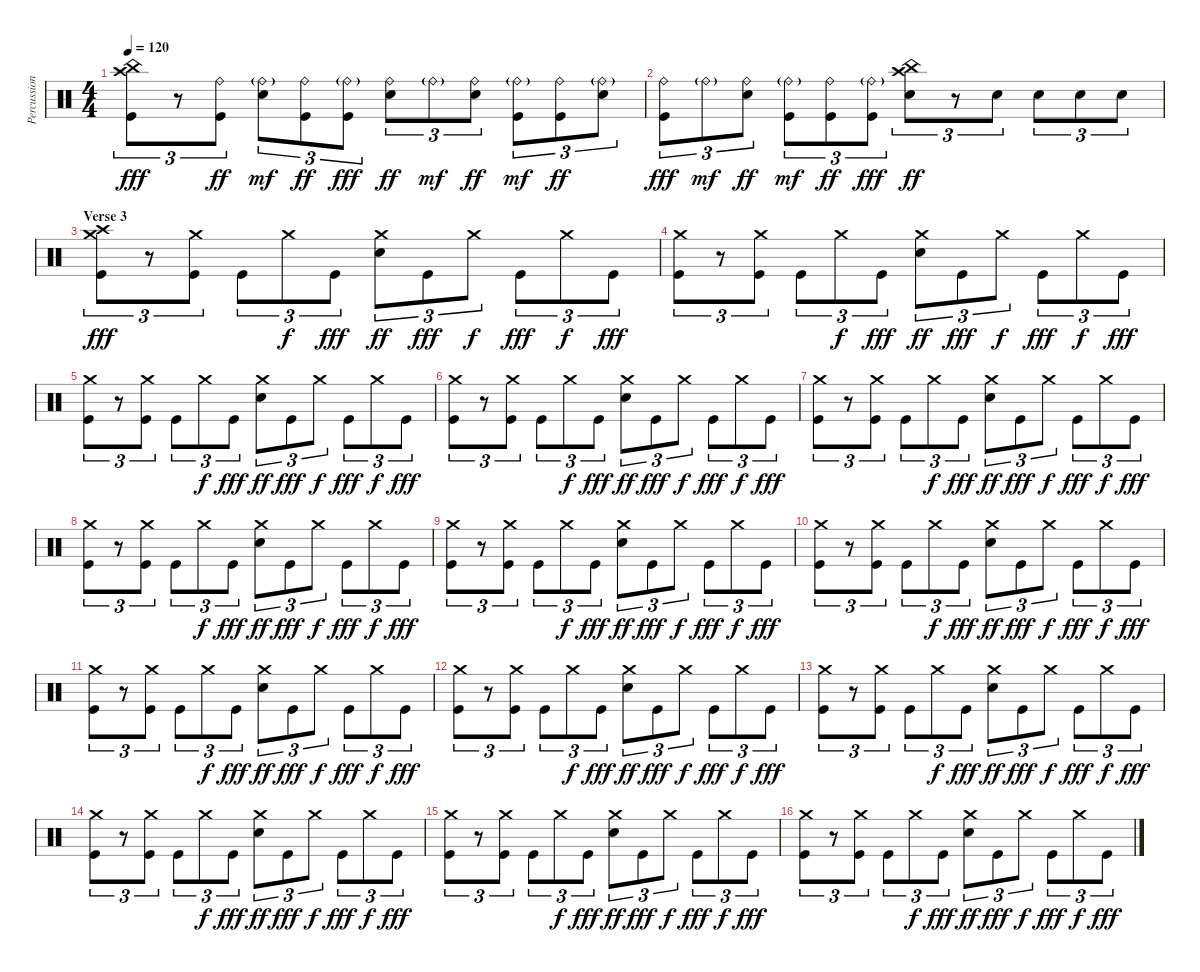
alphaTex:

\track ("Percussion" "Percussion") {instrument percussion}
\staff {score}
\articulation defaults
\ts (4 4)
\tempo 120
\clef neutral
\ks c
("China (hit)" "Crash high (hit)" "Kick (hit)").8{tu (3 2) dy fff volume 16} r.8{tu (3 2)} ("Ride (bell)" "Kick (hit)").8{tu (3 2) dy ff} ("Ride (bell)"{g} "Snare (hit) 2").8{tu (3 2) dy mf} ("Ride (bell)" "Kick (hit)").8{tu (3 2) dy ff} ("Ride (bell)"{g} "Kick (hit)").8{tu (3 2) dy fff} ("Ride (bell)" "Snare (hit) 2").8{tu (3 2) dy ff} "Ride (bell)"{g}.8{tu (3 2) dy mf} ("Ride (bell)" "Snare (hit) 2").8{tu (3 2) dy ff} ("Ride (bell)"{g} "Kick (hit)").8{tu (3 2) dy mf} ("Ride (bell)" "Kick (hit)").8{tu (3 2) dy ff} ("Ride (bell)"{g} "Snare (hit) 2").8{tu (3 2)} |
("Ride (bell)" "Kick (hit)").8{tu (3 2) dy fff} "Ride (bell)"{g}.8{tu (3 2) dy mf} ("Ride (bell)" "Snare (hit) 2").8{tu (3 2) dy ff} ("Ride (bell)"{g} "Kick (hit)").8{tu (3 2) dy mf} ("Ride (bell)" "Kick (hit)").8{tu (3 2) dy ff} ("Ride (bell)"{g} "Kick (hit)").8{tu (3 2) dy fff} ("Crash high (hit)" "China (hit)" "Snare (hit) 2").8{tu (3 2) dy ff} r.8{tu (3 2)} "Snare (hit) 2".8{tu (3 2)} "Snare (hit) 2".8{tu (3 2)} "Snare (hit) 2".8{tu (3 2)} "Snare (hit) 2".8{tu (3 2)} |
\section ("" "Verse 3")
("Crash high (hit)" "Crash medium (hit)" "Kick (hit)").8{tu (3 2) dy fff} r.8{tu (3 2)} ("Crash medium (hit)" "Kick (hit)").8{tu (3 2)} "Kick (hit)".8{tu (3 2)} "Crash medium (hit)".8{tu (3 2) dy f} "Kick (hit)".8{tu (3 2) dy fff} ("Crash medium (hit)" "Snare (hit) 2").8{tu (3 2) dy ff} "Kick (hit)".8{tu (3 2) dy fff} "Crash medium (hit)".8{tu (3 2) dy f} "Kick (hit)".8{tu (3 2) dy fff} "Crash medium (hit)".8{tu (3 2) dy f} "Kick (hit)".8{tu (3 2) dy fff} |
("Crash medium (hit)" "Kick (hit)").8{tu (3 2)} r.8{tu (3 2)} ("Crash medium (hit)" "Kick (hit)").8{tu (3 2)} "Kick (hit)".8{tu (3 2)} "Crash medium (hit)".8{tu (3 2) dy f} "Kick (hit)".8{tu (3 2) dy fff} ("Crash medium (hit)" "Snare (hit) 2").8{tu (3 2) dy ff} "Kick (hit)".8{tu (3 2) dy fff} "Crash medium (hit)".8{tu (3 2) dy f} "Kick (hit)".8{tu (3 2) dy fff} "Crash medium (hit)".8{tu (3 2) dy f} "Kick (hit)".8{tu (3 2) dy fff} |
("Crash medium (hit)" "Kick (hit)").8{tu (3 2)} r.8{tu (3 2)} ("Crash medium (hit)" "Kick (hit)").8{tu (3 2)} "Kick (hit)".8{tu (3 2)} "Crash medium (hit)".8{tu (3 2) dy f} "Kick (hit)".8{tu (3 2) dy fff} ("Crash medium (hit)" "Snare (hit) 2").8{tu (3 2) dy ff} "Kick (hit)".8{tu (3 2) dy fff} "Crash medium (hit)".8{tu (3 2) dy f} "Kick (hit)".8{tu (3 2) dy fff} "Crash medium (hit)".8{tu (3 2) dy f} "Kick (hit)".8{tu (3 2) dy fff} |
("Crash medium (hit)" "Kick (hit)").8{tu (3 2)} r.8{tu (3 2)} ("Crash medium (hit)" "Kick (hit)").8{tu (3 2)} "Kick (hit)".8{tu (3 2)} "Crash medium (hit)".8{tu (3 2) dy f} "Kick (hit)".8{tu (3 2) dy fff} ("Crash medium (hit)" "Snare (hit) 2").8{tu (3 2) dy ff} "Kick (hit)".8{tu (3 2) dy fff} "Crash medium (hit)".8{tu (3 2) dy f} "Kick (hit)".8{tu (3 2) dy fff} "Crash medium (hit)".8{tu (3 2) dy f} "Kick (hit)".8{tu (3 2) dy fff} |
("Crash medium (hit)" "Kick (hit)").8{tu (3 2)} r.8{tu (3 2)} ("Crash medium (hit)" "Kick (hit)").8{tu (3 2)} "Kick (hit)".8{tu (3 2)} "Crash medium (hit)".8{tu (3 2) dy f} "Kick (hit)".8{tu (3 2) dy fff} ("Crash medium (hit)" "Snare (hit) 2").8{tu (3 2) dy ff} "Kick (hit)".8{tu (3 2) dy fff} "Crash medium (hit)".8{tu (3 2) dy f} "Kick (hit)".8{tu (3 2) dy fff} "Crash medium (hit)".8{tu (3 2) dy f} "Kick (hit)".8{tu (3 2) dy fff} |
("Crash medium (hit)" "Kick (hit)").8{tu (3 2)} r.8{tu (3 2)} ("Crash medium (hit)" "Kick (hit)").8{tu (3 2)} "Kick (hit)".8{tu (3 2)} "Crash medium (hit)".8{tu (3 2) dy f} "Kick (hit)".8{tu (3 2) dy fff} ("Crash medium (hit)" "Snare (hit) 2").8{tu (3 2) dy ff} "Kick (hit)".8{tu (3 2) dy fff} "Crash medium (hit)".8{tu (3 2) dy f} "Kick (hit)".8{tu (3 2) dy fff} "Crash medium (hit)".8{tu (3 2) dy f} "Kick (hit)".8{tu (3 2) dy fff} |
("Crash medium (hit)" "Kick (hit)").8{tu (3 2)} r.8{tu (3 2)} ("Crash medium (hit)" "Kick (hit)").8{tu (3 2)} "Kick (hit)".8{tu (3 2)} "Crash medium (hit)".8{tu (3 2) dy f} "Kick (hit)".8{tu (3 2) dy fff} ("Crash medium (hit)" "Snare (hit) 2").8{tu (3 2) dy ff} "Kick (hit)".8{tu (3 2) dy fff} "Crash medium (hit)".8{tu (3 2) dy f} "Kick (hit)".8{tu (3 2) dy fff} "Crash medium (hit)".8{tu (3 2) dy f} "Kick (hit)".8{tu (3 2) dy fff} |
("Crash medium (hit)" "Kick (hit)").8{tu (3 2)} r.8{tu (3 2)} ("Crash medium (hit)" "Kick (hit)").8{tu (3 2)} "Kick (hit)".8{tu (3 2)} "Crash medium (hit)".8{tu (3 2) dy f} "Kick (hit)".8{tu (3 2) dy fff} ("Crash medium (hit)" "Snare (hit) 2").8{tu (3 2) dy ff} "Kick (hit)".8{tu (3 2) dy fff} "Crash medium (hit)".8{tu (3 2) dy f} "Kick (hit)".8{tu (3 2) dy fff} "Crash medium (hit)".8{tu (3 2) dy f} "Kick (hit)".8{tu (3 2) dy fff} |
("Crash medium (hit)" "Kick (hit)").8{tu (3 2)} r.8{tu (3 2)} ("Crash medium (hit)" "Kick (hit)").8{tu (3 2)} "Kick (hit)".8{tu (3 2)} "Crash medium (hit)".8{tu (3 2) dy f} "Kick (hit)".8{tu (3 2) dy fff} ("Crash medium (hit)" "Snare (hit) 2").8{tu (3 2) dy ff} "Kick (hit)".8{tu (3 2) dy fff} "Crash medium (hit)".8{tu (3 2) dy f} "Kick (hit)".8{tu (3 2) dy fff} "Crash medium (hit)".8{tu (3 2) dy f} "Kick (hit)".8{tu (3 2) dy fff} |
("Crash medium (hit)" "Kick (hit)").8{tu (3 2)} r.8{tu (3 2)} ("Crash medium (hit)" "Kick (hit)").8{tu (3 2)} "Kick (hit)".8{tu (3 2)} "Crash medium (hit)".8{tu (3 2) dy f} "Kick (hit)".8{tu (3 2) dy fff} ("Crash medium (hit)" "Snare (hit) 2").8{tu (3 2) dy ff} "Kick (hit)".8{tu (3 2) dy fff} "Crash medium (hit)".8{tu (3 2) dy f} "Kick (hit)".8{tu (3 2) dy fff} "Crash medium (hit)".8{tu (3 2) dy f} "Kick (hit)".8{tu (3 2) dy fff} |
("Crash medium (hit)" "Kick (hit)").8{tu (3 2)} r.8{tu (3 2)} ("Crash medium (hit)" "Kick (hit)").8{tu (3 2)} "Kick (hit)".8{tu (3 2)} "Crash medium (hit)".8{tu (3 2) dy f} "Kick (hit)".8{tu (3 2) dy fff} ("Crash medium (hit)" "Snare (hit) 2").8{tu (3 2) dy ff} "Kick (hit)".8{tu (3 2) dy fff} "Crash medium (hit)".8{tu (3 2) dy f} "Kick (hit)".8{tu (3 2) dy fff} "Crash medium (hit)".8{tu (3 2) dy f} "Kick (hit)".8{tu (3 2) dy fff} |
("Crash medium (hit)" "Kick (hit)").8{tu (3 2)} r.8{tu (3 2)} ("Crash medium (hit)" "Kick (hit)").8{tu (3 2)} "Kick (hit)".8{tu (3 2)} "Crash medium (hit)".8{tu (3 2) dy f} "Kick (hit)".8{tu (3 2) dy fff} ("Crash medium (hit)" "Snare (hit) 2").8{tu (3 2) dy ff} "Kick (hit)".8{tu (3 2) dy fff} "Crash medium (hit)".8{tu (3 2) dy f} "Kick (hit)".8{tu (3 2) dy fff} "Crash medium (hit)".8{tu (3 2) dy f} "Kick (hit)".8{tu (3 2) dy fff} |
("Crash medium (hit)" "Kick (hit)").8{tu (3 2)} r.8{tu (3 2)} ("Crash medium (hit)" "Kick (hit)").8{tu (3 2)} "Kick (hit)".8{tu (3 2)} "Crash medium (hit)".8{tu (3 2) dy f} "Kick (hit)".8{tu (3 2) dy fff} ("Crash medium (hit)" "Snare (hit) 2").8{tu (3 2) dy ff} "Kick (hit)".8{tu (3 2) dy fff} "Crash medium (hit)".8{tu (3 2) dy f} "Kick (hit)".8{tu (3 2) dy fff} "Crash medium (hit)".8{tu (3 2) dy f} "Kick (hit)".8{tu (3 2) dy fff} |
("Crash medium (hit)" "Kick (hit)").8{tu (3 2)} r.8{tu (3 2)} ("Crash medium (hit)" "Kick (hit)").8{tu (3 2)} "Kick (hit)".8{tu (3 2)} "Crash medium (hit)".8{tu (3 2) dy f} "Kick (hit)".8{tu (3 2) dy fff} ("Crash medium (hit)" "Snare (hit) 2").8{tu (3 2) dy ff} "Kick (hit)".8{tu (3 2) dy fff} "Crash medium (hit)".8{tu (3 2) dy f} "Kick (hit)".8{tu (3 2) dy fff} "Crash medium (hit)".8{tu (3 2) dy f} "Kick (hit)".8{tu (3 2) dy fff}
